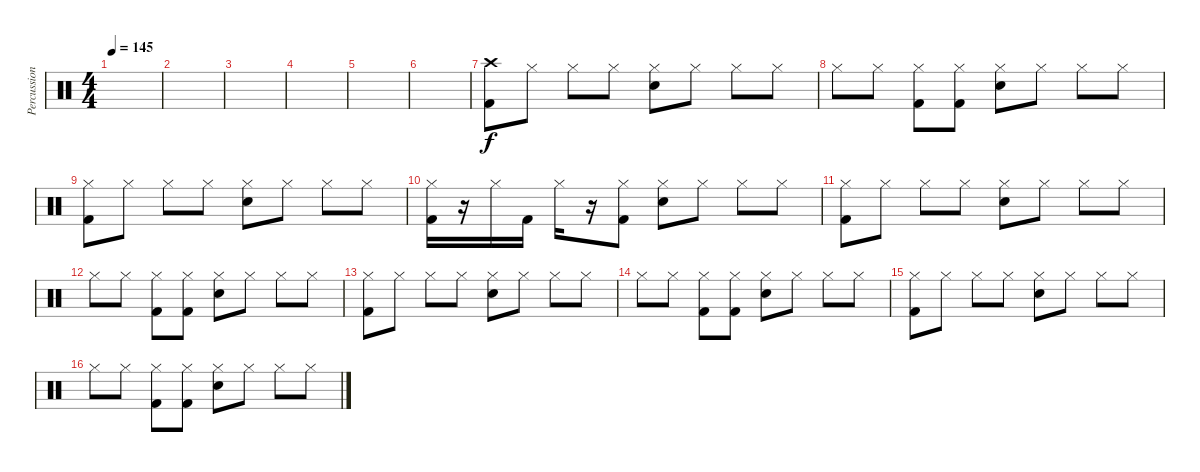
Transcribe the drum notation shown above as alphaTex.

\track ("Percussion" "Percussion") {instrument percussion}
\staff {score}
\articulation defaults
\ts (4 4)
\tempo 145
\clef neutral
\ks c
|
|
|
|
|
|
("Crash high (hit)" "Kick (hit) 2").8 "Hi-Hat (closed)".8 "Hi-Hat (closed)".8 "Hi-Hat (closed)".8 ("Hi-Hat (closed)" "Electric Snare (hit)").8 "Hi-Hat (closed)".8 "Hi-Hat (closed)".8 "Hi-Hat (closed)".8 |
"Hi-Hat (closed)".8 "Hi-Hat (closed)".8 ("Hi-Hat (closed)" "Kick (hit) 2").8 ("Hi-Hat (closed)" "Kick (hit) 2").8 ("Hi-Hat (closed)" "Electric Snare (hit)").8 "Hi-Hat (closed)".8 "Hi-Hat (closed)".8 "Hi-Hat (closed)".8 |
("Hi-Hat (closed)" "Kick (hit) 2").8 "Hi-Hat (closed)".8 "Hi-Hat (closed)".8 "Hi-Hat (closed)".8 ("Hi-Hat (closed)" "Electric Snare (hit)").8 "Hi-Hat (closed)".8 "Hi-Hat (closed)".8 "Hi-Hat (closed)".8 |
("Hi-Hat (closed)" "Kick (hit) 2").16 r.16 "Hi-Hat (closed)".16 "Kick (hit) 2".16 "Hi-Hat (closed)".16 r.16 ("Hi-Hat (closed)" "Kick (hit) 2").8 ("Hi-Hat (closed)" "Electric Snare (hit)").8 "Hi-Hat (closed)".8 "Hi-Hat (closed)".8 "Hi-Hat (closed)".8 |
("Hi-Hat (closed)" "Kick (hit) 2").8 "Hi-Hat (closed)".8 "Hi-Hat (closed)".8 "Hi-Hat (closed)".8 ("Hi-Hat (closed)" "Electric Snare (hit)").8 "Hi-Hat (closed)".8 "Hi-Hat (closed)".8 "Hi-Hat (closed)".8 |
"Hi-Hat (closed)".8 "Hi-Hat (closed)".8 ("Hi-Hat (closed)" "Kick (hit) 2").8 ("Hi-Hat (closed)" "Kick (hit) 2").8 ("Hi-Hat (closed)" "Electric Snare (hit)").8 "Hi-Hat (closed)".8 "Hi-Hat (closed)".8 "Hi-Hat (closed)".8 |
("Hi-Hat (closed)" "Kick (hit) 2").8 "Hi-Hat (closed)".8 "Hi-Hat (closed)".8 "Hi-Hat (closed)".8 ("Hi-Hat (closed)" "Electric Snare (hit)").8 "Hi-Hat (closed)".8 "Hi-Hat (closed)".8 "Hi-Hat (closed)".8 |
"Hi-Hat (closed)".8 "Hi-Hat (closed)".8 ("Hi-Hat (closed)" "Kick (hit) 2").8 ("Hi-Hat (closed)" "Kick (hit) 2").8 ("Hi-Hat (closed)" "Electric Snare (hit)").8 "Hi-Hat (closed)".8 "Hi-Hat (closed)".8 "Hi-Hat (closed)".8 |
("Hi-Hat (closed)" "Kick (hit) 2").8 "Hi-Hat (closed)".8 "Hi-Hat (closed)".8 "Hi-Hat (closed)".8 ("Hi-Hat (closed)" "Electric Snare (hit)").8 "Hi-Hat (closed)".8 "Hi-Hat (closed)".8 "Hi-Hat (closed)".8 |
"Hi-Hat (closed)".8 "Hi-Hat (closed)".8 ("Hi-Hat (closed)" "Kick (hit) 2").8 ("Hi-Hat (closed)" "Kick (hit) 2").8 ("Hi-Hat (closed)" "Electric Snare (hit)").8 "Hi-Hat (closed)".8 "Hi-Hat (closed)".8 "Hi-Hat (closed)".8
